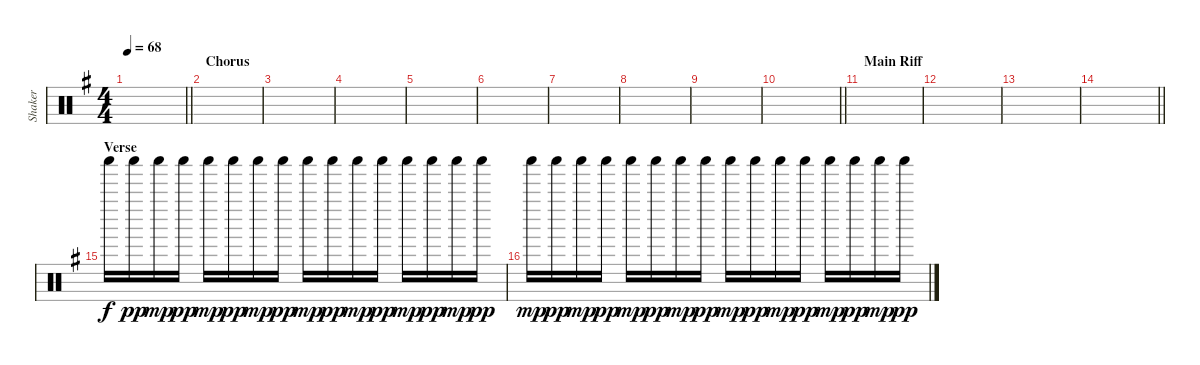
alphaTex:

\track ("Shaker" "Shaker") {instrument percussion}
\staff {score}
\articulation defaults
\ts (4 4)
\tempo 68
\clef neutral
\barLineRight lightlight
\ks g
|
\section ("" "Chorus")
|
|
|
|
|
|
|
|
\barLineRight lightlight
|
\section ("" "Main Riff")
|
|
|
\barLineRight lightlight
|
\section ("" "Verse")
"Shaker (hit)".16 "Shaker (hit)".16{dy pp} "Shaker (hit)".16{dy mp} "Shaker (hit)".16{dy pp} "Shaker (hit)".16{dy mp} "Shaker (hit)".16{dy pp} "Shaker (hit)".16{dy mp} "Shaker (hit)".16{dy pp} "Shaker (hit)".16{dy mp} "Shaker (hit)".16{dy pp} "Shaker (hit)".16{dy mp} "Shaker (hit)".16{dy pp} "Shaker (hit)".16{dy mp} "Shaker (hit)".16{dy pp} "Shaker (hit)".16{dy mp} "Shaker (hit)".16{dy pp} |
"Shaker (hit)".16{dy mp} "Shaker (hit)".16{dy pp} "Shaker (hit)".16{dy mp} "Shaker (hit)".16{dy pp} "Shaker (hit)".16{dy mp} "Shaker (hit)".16{dy pp} "Shaker (hit)".16{dy mp} "Shaker (hit)".16{dy pp} "Shaker (hit)".16{dy mp} "Shaker (hit)".16{dy pp} "Shaker (hit)".16{dy mp} "Shaker (hit)".16{dy pp} "Shaker (hit)".16{dy mp} "Shaker (hit)".16{dy pp} "Shaker (hit)".16{dy mp} "Shaker (hit)".16{dy pp}
